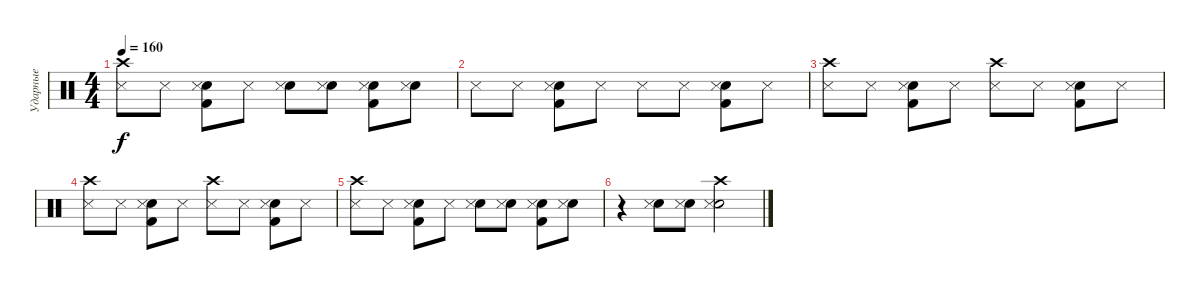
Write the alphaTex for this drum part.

\track ("Ударные" "Ударные") {instrument percussion}
\staff {score}
\articulation defaults
\ts (4 4)
\tempo 160
\clef neutral
\ks c
("Crash high (hit)" "Snare (side stick) 3").8{dy f} "Snare (side stick) 3".8 ("Kick (hit) 2" "Snare (hit) 2" "Snare (side stick) 3").8 "Snare (side stick) 3".8 ("Snare (hit) 2" "Snare (side stick) 3").8 ("Snare (hit) 2" "Snare (side stick) 3").8 ("Kick (hit) 2" "Snare (hit) 2" "Snare (side stick) 3").8 ("Snare (hit) 2" "Snare (side stick) 3").8 |
"Snare (side stick) 3".8 "Snare (side stick) 3".8 ("Kick (hit) 2" "Snare (hit) 2" "Snare (side stick) 3").8 "Snare (side stick) 3".8 "Snare (side stick) 3".8 "Snare (side stick) 3".8 ("Kick (hit) 2" "Snare (hit) 2" "Snare (side stick) 3").8 "Snare (side stick) 3".8 |
("Crash high (hit)" "Snare (side stick) 3").8 "Snare (side stick) 3".8 ("Kick (hit) 2" "Snare (hit) 2" "Snare (side stick) 3").8 "Snare (side stick) 3".8 ("Crash high (hit)" "Snare (side stick) 3").8 "Snare (side stick) 3".8 ("Kick (hit) 2" "Snare (hit) 2" "Snare (side stick) 3").8 "Snare (side stick) 3".8 |
("Crash high (hit)" "Snare (side stick) 3").8 "Snare (side stick) 3".8 ("Kick (hit) 2" "Snare (hit) 2" "Snare (side stick) 3").8 "Snare (side stick) 3".8 ("Crash high (hit)" "Snare (side stick) 3").8 "Snare (side stick) 3".8 ("Kick (hit) 2" "Snare (hit) 2" "Snare (side stick) 3").8 "Snare (side stick) 3".8 |
("Crash high (hit)" "Snare (side stick) 3").8 "Snare (side stick) 3".8 ("Kick (hit) 2" "Snare (hit) 2" "Snare (side stick) 3").8 "Snare (side stick) 3".8 ("Snare (hit) 2" "Snare (side stick) 3").8 ("Snare (hit) 2" "Snare (side stick) 3").8 ("Kick (hit) 2" "Snare (hit) 2" "Snare (side stick) 3").8 ("Snare (hit) 2" "Snare (side stick) 3").8 |
r.4 ("Snare (hit) 2" "Snare (side stick) 3").8 ("Snare (hit) 2" "Snare (side stick) 3").8 ("Crash high (hit)" "Snare (hit) 2" "Snare (side stick) 3").2
